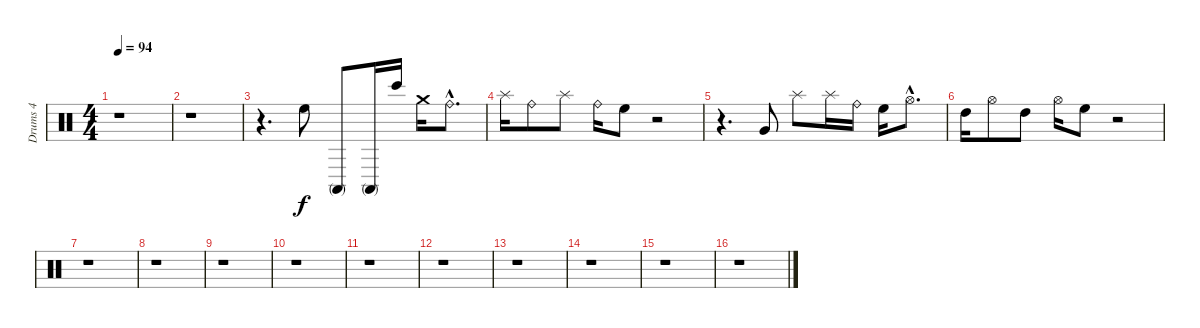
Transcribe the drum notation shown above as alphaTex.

\track ("Drums 4" "Drums 4") {instrument percussion}
\staff {score}
\articulation defaults
\ts (4 4)
\tempo 94
\clef neutral
\ks c
r.1{dy f} |
r.1 |
r.4{d} "High Floor Tom (hit)".8{volume 10 balance 6} "Conga high (mute)".8 "Conga high (mute)".16 "Bongo High (hit)".16 "Crash medium (hit)".16 "Ride (bell)"{hac}.8{d} |
"Splash (hit)".16 "Ride (bell)".8 "Splash (hit)".8 "Ride (bell)".16 "High Floor Tom (hit)".8 r.2 |
r.4{d} "Very Low Tom (hit)".8 "Splash (hit)".8 "Splash (hit)".16 "Ride (bell)".16 "High Floor Tom (hit)".16 "Hi-Hat (open)"{hac}.8{d} |
"High Tom (hit)".16 "Hi-Hat (open)".8 "High Tom (hit)".8 "Hi-Hat (open)".16 "High Floor Tom (hit)".8 r.2 |
r.1 |
r.1 |
r.1 |
r.1 |
r.1 |
r.1 |
r.1 |
r.1 |
r.1 |
r.1
